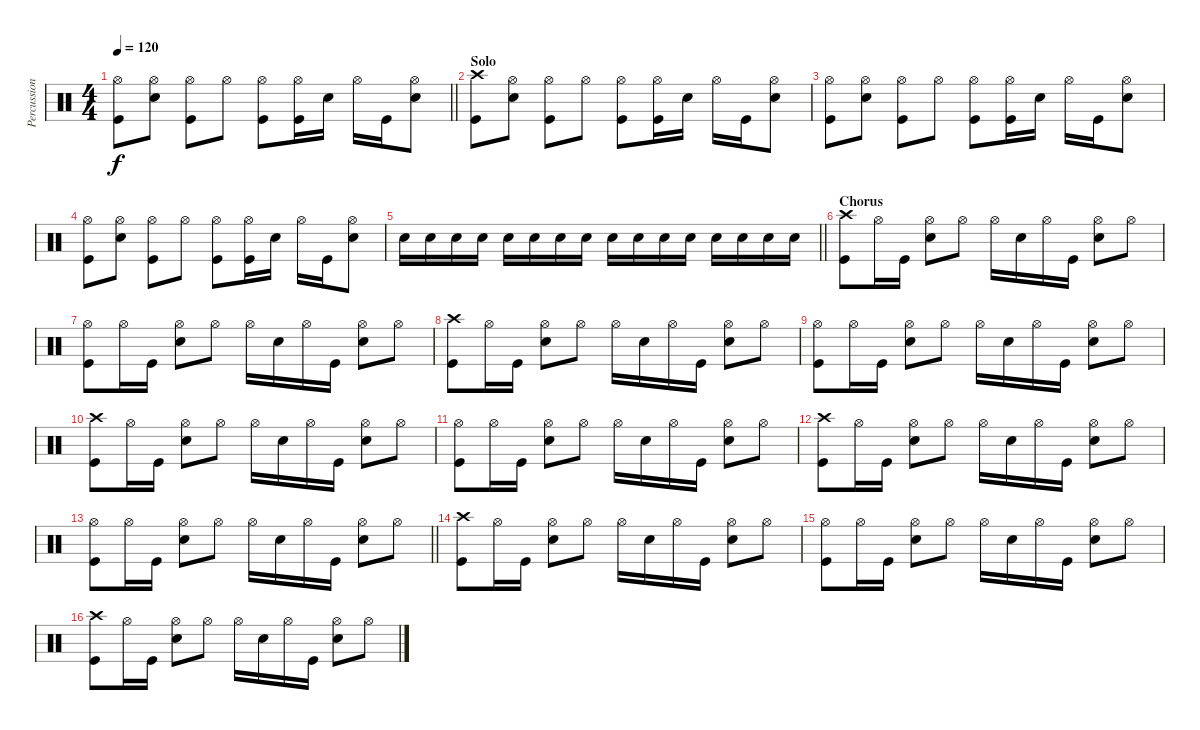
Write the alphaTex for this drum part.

\track ("Percussion" "Percussion") {instrument percussion}
\staff {score}
\articulation defaults
\ts (4 4)
\tempo 120
\clef neutral
\barLineRight lightlight
\ks c
("Hi-Hat (open)" "Kick (hit)").8{dy f} ("Hi-Hat (open)" "Snare (hit) 2").8 ("Hi-Hat (open)" "Kick (hit)").8 "Hi-Hat (open)".8 ("Hi-Hat (open)" "Kick (hit)").8 ("Hi-Hat (open)" "Kick (hit)").16 "Snare (hit) 2".16 "Hi-Hat (open)".16 "Kick (hit)".16 ("Hi-Hat (open)" "Snare (hit) 2").8 |
\section ("" "Solo")
("Crash high (hit)" "Kick (hit)").8 ("Hi-Hat (open)" "Snare (hit) 2").8 ("Hi-Hat (open)" "Kick (hit)").8 "Hi-Hat (open)".8 ("Hi-Hat (open)" "Kick (hit)").8 ("Hi-Hat (open)" "Kick (hit)").16 "Snare (hit) 2".16 "Hi-Hat (open)".16 "Kick (hit)".16 ("Hi-Hat (open)" "Snare (hit) 2").8 |
("Hi-Hat (open)" "Kick (hit)").8 ("Hi-Hat (open)" "Snare (hit) 2").8 ("Hi-Hat (open)" "Kick (hit)").8 "Hi-Hat (open)".8 ("Hi-Hat (open)" "Kick (hit)").8 ("Hi-Hat (open)" "Kick (hit)").16 "Snare (hit) 2".16 "Hi-Hat (open)".16 "Kick (hit)".16 ("Hi-Hat (open)" "Snare (hit) 2").8 |
("Hi-Hat (open)" "Kick (hit)").8 ("Hi-Hat (open)" "Snare (hit) 2").8 ("Hi-Hat (open)" "Kick (hit)").8 "Hi-Hat (open)".8 ("Hi-Hat (open)" "Kick (hit)").8 ("Hi-Hat (open)" "Kick (hit)").16 "Snare (hit) 2".16 "Hi-Hat (open)".16 "Kick (hit)".16 ("Hi-Hat (open)" "Snare (hit) 2").8 |
\barLineRight lightlight "Snare (hit) 2".16 "Snare (hit) 2".16 "Snare (hit) 2".16 "Snare (hit) 2".16 "Snare (hit) 2".16 "Snare (hit) 2".16 "Snare (hit) 2".16 "Snare (hit) 2".16 "Snare (hit) 2".16 "Snare (hit) 2".16 "Snare (hit) 2".16 "Snare (hit) 2".16 "Snare (hit) 2".16 "Snare (hit) 2".16 "Snare (hit) 2".16 "Snare (hit) 2".16
|
\section ("" "Chorus")
("Crash high (hit)" "Kick (hit)").8 "Hi-Hat (open)".16 "Kick (hit)".16 ("Hi-Hat (open)" "Snare (hit) 2").8 "Hi-Hat (open)".8 "Hi-Hat (open)".16 "Snare (hit) 2".16 "Hi-Hat (open)".16 "Kick (hit)".16 ("Hi-Hat (open)" "Snare (hit) 2").8 "Hi-Hat (open)".8 |
("Hi-Hat (open)" "Kick (hit)").8 "Hi-Hat (open)".16 "Kick (hit)".16 ("Hi-Hat (open)" "Snare (hit) 2").8 "Hi-Hat (open)".8 "Hi-Hat (open)".16 "Snare (hit) 2".16 "Hi-Hat (open)".16 "Kick (hit)".16 ("Hi-Hat (open)" "Snare (hit) 2").8 "Hi-Hat (open)".8 |
("Crash high (hit)" "Kick (hit)").8 "Hi-Hat (open)".16 "Kick (hit)".16 ("Hi-Hat (open)" "Snare (hit) 2").8 "Hi-Hat (open)".8 "Hi-Hat (open)".16 "Snare (hit) 2".16 "Hi-Hat (open)".16 "Kick (hit)".16 ("Hi-Hat (open)" "Snare (hit) 2").8 "Hi-Hat (open)".8 |
("Hi-Hat (open)" "Kick (hit)").8 "Hi-Hat (open)".16 "Kick (hit)".16 ("Hi-Hat (open)" "Snare (hit) 2").8 "Hi-Hat (open)".8 "Hi-Hat (open)".16 "Snare (hit) 2".16 "Hi-Hat (open)".16 "Kick (hit)".16 ("Hi-Hat (open)" "Snare (hit) 2").8 "Hi-Hat (open)".8 |
("Crash high (hit)" "Kick (hit)").8 "Hi-Hat (open)".16 "Kick (hit)".16 ("Hi-Hat (open)" "Snare (hit) 2").8 "Hi-Hat (open)".8 "Hi-Hat (open)".16 "Snare (hit) 2".16 "Hi-Hat (open)".16 "Kick (hit)".16 ("Hi-Hat (open)" "Snare (hit) 2").8 "Hi-Hat (open)".8 |
("Hi-Hat (open)" "Kick (hit)").8 "Hi-Hat (open)".16 "Kick (hit)".16 ("Hi-Hat (open)" "Snare (hit) 2").8 "Hi-Hat (open)".8 "Hi-Hat (open)".16 "Snare (hit) 2".16 "Hi-Hat (open)".16 "Kick (hit)".16 ("Hi-Hat (open)" "Snare (hit) 2").8 "Hi-Hat (open)".8 |
("Crash high (hit)" "Kick (hit)").8 "Hi-Hat (open)".16 "Kick (hit)".16 ("Hi-Hat (open)" "Snare (hit) 2").8 "Hi-Hat (open)".8 "Hi-Hat (open)".16 "Snare (hit) 2".16 "Hi-Hat (open)".16 "Kick (hit)".16 ("Hi-Hat (open)" "Snare (hit) 2").8 "Hi-Hat (open)".8 |
\barLineRight lightlight
("Hi-Hat (open)" "Kick (hit)").8 "Hi-Hat (open)".16 "Kick (hit)".16 ("Hi-Hat (open)" "Snare (hit) 2").8 "Hi-Hat (open)".8 "Hi-Hat (open)".16 "Snare (hit) 2".16 "Hi-Hat (open)".16 "Kick (hit)".16 ("Hi-Hat (open)" "Snare (hit) 2").8 "Hi-Hat (open)".8 |
("Crash high (hit)" "Kick (hit)").8 "Hi-Hat (open)".16 "Kick (hit)".16 ("Hi-Hat (open)" "Snare (hit) 2").8 "Hi-Hat (open)".8 "Hi-Hat (open)".16 "Snare (hit) 2".16 "Hi-Hat (open)".16 "Kick (hit)".16 ("Hi-Hat (open)" "Snare (hit) 2").8 "Hi-Hat (open)".8 |
("Hi-Hat (open)" "Kick (hit)").8 "Hi-Hat (open)".16 "Kick (hit)".16 ("Hi-Hat (open)" "Snare (hit) 2").8 "Hi-Hat (open)".8 "Hi-Hat (open)".16 "Snare (hit) 2".16 "Hi-Hat (open)".16 "Kick (hit)".16 ("Hi-Hat (open)" "Snare (hit) 2").8 "Hi-Hat (open)".8 |
("Crash high (hit)" "Kick (hit)").8 "Hi-Hat (open)".16 "Kick (hit)".16 ("Hi-Hat (open)" "Snare (hit) 2").8 "Hi-Hat (open)".8 "Hi-Hat (open)".16 "Snare (hit) 2".16 "Hi-Hat (open)".16 "Kick (hit)".16 ("Hi-Hat (open)" "Snare (hit) 2").8 "Hi-Hat (open)".8
